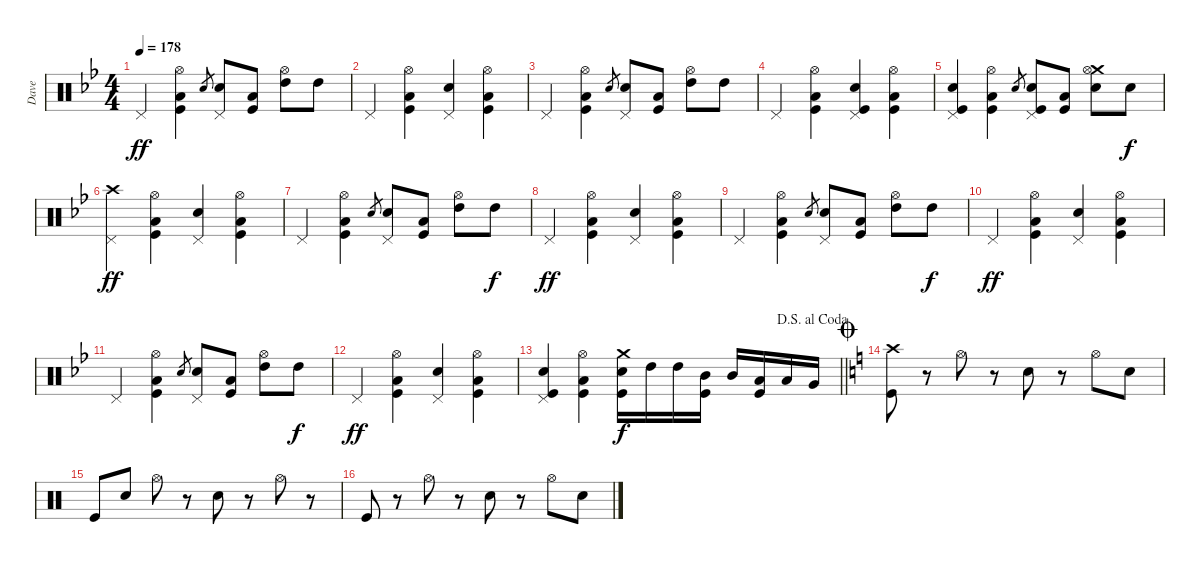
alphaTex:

\track ("Dave" "Dave") {instrument percussion}
\staff {score}
\articulation defaults
\ts (4 4)
\tempo 178
\clef neutral
\ks gminor "Pedal Hi-Hat (hit)".4{dy ff}
("Hi-Hat (open)" "Low Floor Tom (hit)" "Kick (hit)").4 "Snare (hit) 2".8{gr} ("Pedal Hi-Hat (hit)" "Snare (hit) 2").8 ("Low Floor Tom (hit)" "Kick (hit)").8 ("High Tom (hit)" "Hi-Hat (open)").8 "High Tom (hit)".8 |
"Pedal Hi-Hat (hit)".4 ("Hi-Hat (open)" "Low Floor Tom (hit)" "Kick (hit)").4 ("Pedal Hi-Hat (hit)" "Snare (hit) 2").4 ("Hi-Hat (open)" "Low Floor Tom (hit)" "Kick (hit)").4 |
"Pedal Hi-Hat (hit)".4 ("Hi-Hat (open)" "Low Floor Tom (hit)" "Kick (hit)").4 "Snare (hit) 2".8{gr} ("Pedal Hi-Hat (hit)" "Snare (hit) 2").8 ("Low Floor Tom (hit)" "Kick (hit)").8 ("High Tom (hit)" "Hi-Hat (open)").8 "High Tom (hit)".8 |
"Pedal Hi-Hat (hit)".4 ("Hi-Hat (open)" "Low Floor Tom (hit)" "Kick (hit)").4 ("Pedal Hi-Hat (hit)" "Snare (hit) 2" "Kick (hit)").4 ("Hi-Hat (open)" "Low Floor Tom (hit)" "Kick (hit)").4 |
("Pedal Hi-Hat (hit)" "Snare (hit) 2" "Kick (hit)").4 ("Hi-Hat (open)" "Low Floor Tom (hit)" "Kick (hit)").4 "Snare (hit) 2".8{gr} ("Pedal Hi-Hat (hit)" "Snare (hit) 2" "Kick (hit)").8 ("Low Floor Tom (hit)" "Kick (hit)").8 ("Crash medium (hit)" "Hi-Hat (open)" "Snare (hit) 2").8 "Snare (hit) 2".8{dy f} |
("Crash high (hit)" "Pedal Hi-Hat (hit)").4{dy ff} ("Hi-Hat (open)" "Low Floor Tom (hit)" "Kick (hit)").4 ("Pedal Hi-Hat (hit)" "Snare (hit) 2").4 ("Hi-Hat (open)" "Low Floor Tom (hit)" "Kick (hit)").4 |
"Pedal Hi-Hat (hit)".4 ("Hi-Hat (open)" "Low Floor Tom (hit)" "Kick (hit)").4 "Snare (hit) 2".8{gr} ("Pedal Hi-Hat (hit)" "Snare (hit) 2").8 ("Low Floor Tom (hit)" "Kick (hit)").8 ("High Tom (hit)" "Hi-Hat (open)").8 "High Tom (hit)".8{dy f} |
"Pedal Hi-Hat (hit)".4{dy ff} ("Hi-Hat (open)" "Low Floor Tom (hit)" "Kick (hit)").4 ("Pedal Hi-Hat (hit)" "Snare (hit) 2").4 ("Hi-Hat (open)" "Low Floor Tom (hit)" "Kick (hit)").4 |
"Pedal Hi-Hat (hit)".4 ("Hi-Hat (open)" "Low Floor Tom (hit)" "Kick (hit)").4 "Snare (hit) 2".8{gr} ("Pedal Hi-Hat (hit)" "Snare (hit) 2").8 ("Low Floor Tom (hit)" "Kick (hit)").8 ("High Tom (hit)" "Hi-Hat (open)").8 "High Tom (hit)".8{dy f} |
"Pedal Hi-Hat (hit)".4{dy ff} ("Hi-Hat (open)" "Low Floor Tom (hit)" "Kick (hit)").4 ("Pedal Hi-Hat (hit)" "Snare (hit) 2").4 ("Hi-Hat (open)" "Low Floor Tom (hit)" "Kick (hit)").4 |
"Pedal Hi-Hat (hit)".4 ("Hi-Hat (open)" "Low Floor Tom (hit)" "Kick (hit)").4 "Snare (hit) 2".8{gr} ("Pedal Hi-Hat (hit)" "Snare (hit) 2").8 ("Low Floor Tom (hit)" "Kick (hit)").8 ("High Tom (hit)" "Hi-Hat (open)").8 "High Tom (hit)".8{dy f} |
"Pedal Hi-Hat (hit)".4{dy ff} ("Hi-Hat (open)" "Low Floor Tom (hit)" "Kick (hit)").4 ("Pedal Hi-Hat (hit)" "Snare (hit) 2").4 ("Hi-Hat (open)" "Low Floor Tom (hit)" "Kick (hit)").4 |
\jump dalsegnoalcoda
\barLineRight lightlight
("Pedal Hi-Hat (hit)" "Snare (hit) 2" "Kick (hit)").4 ("Hi-Hat (open)" "Low Floor Tom (hit)" "Kick (hit)").4 ("Crash medium (hit)" "Snare (hit) 2" "Kick (hit)").16{dy f} "High Tom (hit)".16 "High Tom (hit)".16 ("Mid Tom (hit)" "Kick (hit)").16 "Mid Tom (hit)".16 ("Low Tom (hit)" "Kick (hit)").16 "Low Tom (hit)".16 "Very Low Tom (hit)".16 |
\jump coda
\ks c
("Crash high (hit)" "Kick (hit)").8 r.8 "Hi-Hat (open)".8 r.8 "Snare (hit) 2".8 r.8 "Hi-Hat (open)".8 "Snare (hit) 2".8 |
"Kick (hit)".8 "Snare (hit) 2".8 "Hi-Hat (open)".8 r.8 "Snare (hit) 2".8 r.8 "Hi-Hat (open)".8 r.8 |
"Kick (hit)".8 r.8 "Hi-Hat (open)".8 r.8 "Snare (hit) 2".8 r.8 "Hi-Hat (open)".8 "Snare (hit) 2".8
